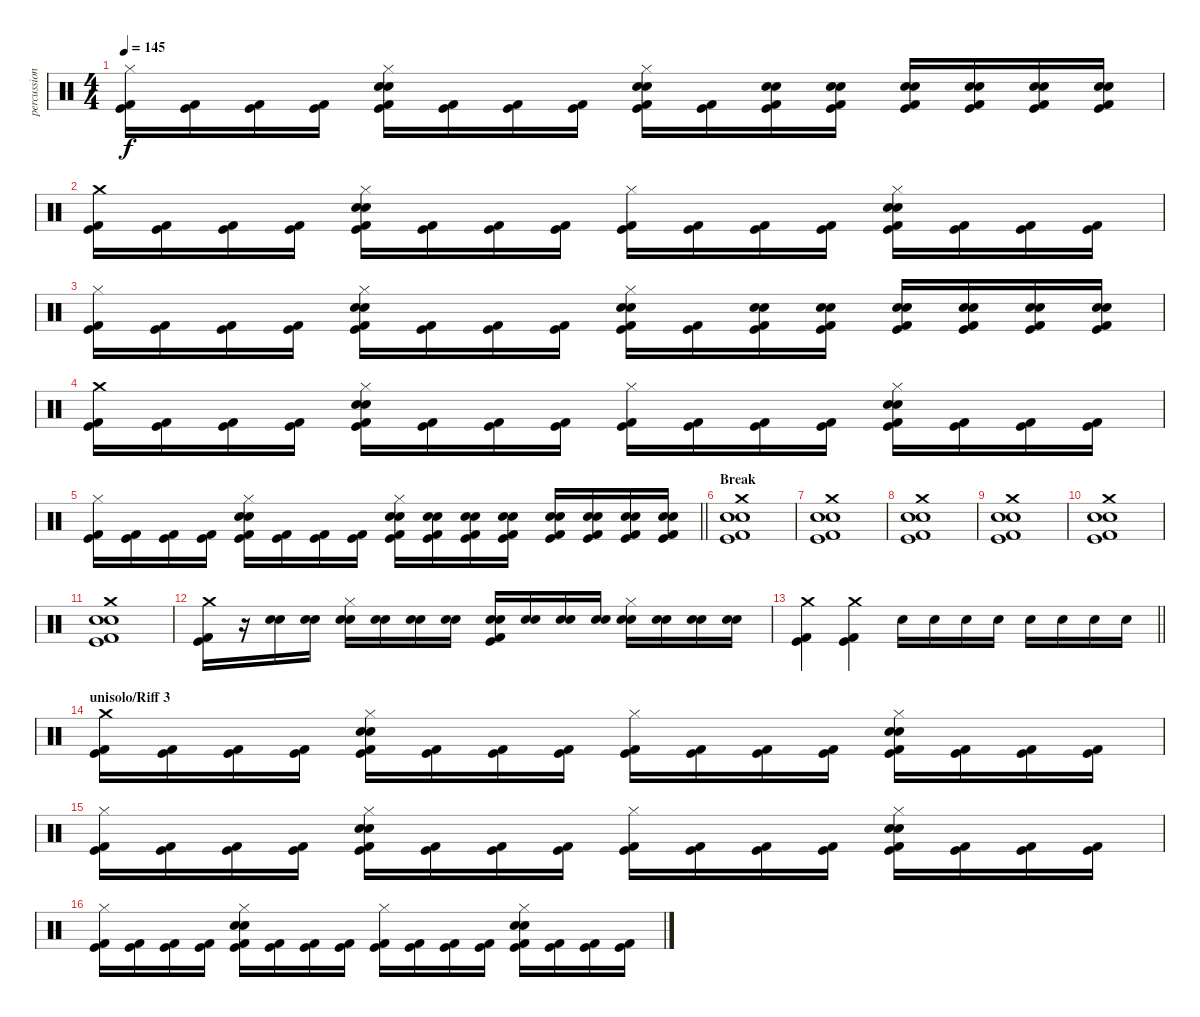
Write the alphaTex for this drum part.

\track ("percussion" "percussion") {instrument percussion}
\staff {score}
\articulation defaults
\ts (4 4)
\tempo 145
\clef neutral
\ks c
("Hi-Hat (closed)" "Kick (hit) 2" "Kick (hit)").16{dy f} ("Kick (hit) 2" "Kick (hit)").16 ("Kick (hit) 2" "Kick (hit)").16 ("Kick (hit) 2" "Kick (hit)").16 ("Hi-Hat (closed)" "Electric Snare (hit)" "Snare (hit) 2" "Kick (hit) 2" "Kick (hit)").16 ("Kick (hit) 2" "Kick (hit)").16 ("Kick (hit) 2" "Kick (hit)").16 ("Kick (hit) 2" "Kick (hit)").16 ("Hi-Hat (closed)" "Electric Snare (hit)" "Snare (hit) 2" "Kick (hit) 2" "Kick (hit)").16 ("Kick (hit) 2" "Kick (hit)").16 ("Electric Snare (hit)" "Snare (hit) 2" "Kick (hit) 2" "Kick (hit)").16 ("Electric Snare (hit)" "Snare (hit) 2" "Kick (hit) 2" "Kick (hit)").16 ("Electric Snare (hit)" "Snare (hit) 2" "Kick (hit) 2" "Kick (hit)").16 ("Electric Snare (hit)" "Snare (hit) 2" "Kick (hit) 2" "Kick (hit)").16 ("Electric Snare (hit)" "Snare (hit) 2" "Kick (hit) 2" "Kick (hit)").16 ("Electric Snare (hit)" "Snare (hit) 2" "Kick (hit) 2" "Kick (hit)").16 |
("Crash medium (hit)" "Kick (hit) 2" "Kick (hit)").16 ("Kick (hit) 2" "Kick (hit)").16 ("Kick (hit) 2" "Kick (hit)").16 ("Kick (hit) 2" "Kick (hit)").16 ("Hi-Hat (closed)" "Electric Snare (hit)" "Snare (hit) 2" "Kick (hit) 2" "Kick (hit)").16 ("Kick (hit) 2" "Kick (hit)").16 ("Kick (hit) 2" "Kick (hit)").16 ("Kick (hit) 2" "Kick (hit)").16 ("Hi-Hat (closed)" "Kick (hit) 2" "Kick (hit)").16 ("Kick (hit) 2" "Kick (hit)").16 ("Kick (hit) 2" "Kick (hit)").16 ("Kick (hit) 2" "Kick (hit)").16 ("Hi-Hat (closed)" "Electric Snare (hit)" "Snare (hit) 2" "Kick (hit) 2" "Kick (hit)").16 ("Kick (hit) 2" "Kick (hit)").16 ("Kick (hit) 2" "Kick (hit)").16 ("Kick (hit) 2" "Kick (hit)").16 |
("Hi-Hat (closed)" "Kick (hit) 2" "Kick (hit)").16 ("Kick (hit) 2" "Kick (hit)").16 ("Kick (hit) 2" "Kick (hit)").16 ("Kick (hit) 2" "Kick (hit)").16 ("Hi-Hat (closed)" "Electric Snare (hit)" "Snare (hit) 2" "Kick (hit) 2" "Kick (hit)").16 ("Kick (hit) 2" "Kick (hit)").16 ("Kick (hit) 2" "Kick (hit)").16 ("Kick (hit) 2" "Kick (hit)").16 ("Hi-Hat (closed)" "Electric Snare (hit)" "Snare (hit) 2" "Kick (hit) 2" "Kick (hit)").16 ("Kick (hit) 2" "Kick (hit)").16 ("Electric Snare (hit)" "Snare (hit) 2" "Kick (hit) 2" "Kick (hit)").16 ("Electric Snare (hit)" "Snare (hit) 2" "Kick (hit) 2" "Kick (hit)").16 ("Electric Snare (hit)" "Snare (hit) 2" "Kick (hit) 2" "Kick (hit)").16 ("Electric Snare (hit)" "Snare (hit) 2" "Kick (hit) 2" "Kick (hit)").16 ("Electric Snare (hit)" "Snare (hit) 2" "Kick (hit) 2" "Kick (hit)").16 ("Electric Snare (hit)" "Snare (hit) 2" "Kick (hit) 2" "Kick (hit)").16 |
("Crash medium (hit)" "Kick (hit) 2" "Kick (hit)").16 ("Kick (hit) 2" "Kick (hit)").16 ("Kick (hit) 2" "Kick (hit)").16 ("Kick (hit) 2" "Kick (hit)").16 ("Hi-Hat (closed)" "Electric Snare (hit)" "Snare (hit) 2" "Kick (hit) 2" "Kick (hit)").16 ("Kick (hit) 2" "Kick (hit)").16 ("Kick (hit) 2" "Kick (hit)").16 ("Kick (hit) 2" "Kick (hit)").16 ("Hi-Hat (closed)" "Kick (hit) 2" "Kick (hit)").16 ("Kick (hit) 2" "Kick (hit)").16 ("Kick (hit) 2" "Kick (hit)").16 ("Kick (hit) 2" "Kick (hit)").16 ("Hi-Hat (closed)" "Electric Snare (hit)" "Snare (hit) 2" "Kick (hit) 2" "Kick (hit)").16 ("Kick (hit) 2" "Kick (hit)").16 ("Kick (hit) 2" "Kick (hit)").16 ("Kick (hit) 2" "Kick (hit)").16 |
\barLineRight lightlight
("Hi-Hat (closed)" "Kick (hit) 2" "Kick (hit)").16 ("Kick (hit) 2" "Kick (hit)").16 ("Kick (hit) 2" "Kick (hit)").16 ("Kick (hit) 2" "Kick (hit)").16 ("Hi-Hat (closed)" "Electric Snare (hit)" "Snare (hit) 2" "Kick (hit) 2" "Kick (hit)").16 ("Kick (hit) 2" "Kick (hit)").16 ("Kick (hit) 2" "Kick (hit)").16 ("Kick (hit) 2" "Kick (hit)").16 ("Hi-Hat (closed)" "Electric Snare (hit)" "Snare (hit) 2" "Kick (hit) 2" "Kick (hit)").16 ("Electric Snare (hit)" "Snare (hit) 2" "Kick (hit) 2" "Kick (hit)").16 ("Electric Snare (hit)" "Snare (hit) 2" "Kick (hit) 2" "Kick (hit)").16 ("Electric Snare (hit)" "Snare (hit) 2" "Kick (hit) 2" "Kick (hit)").16 ("Electric Snare (hit)" "Snare (hit) 2" "Kick (hit) 2" "Kick (hit)").16 ("Electric Snare (hit)" "Snare (hit) 2" "Kick (hit) 2" "Kick (hit)").16 ("Electric Snare (hit)" "Snare (hit) 2" "Kick (hit) 2" "Kick (hit)").16 ("Electric Snare (hit)" "Snare (hit) 2" "Kick (hit) 2" "Kick (hit)").16 |
\section ("" "Break")
("Crash medium (hit)" "Electric Snare (hit)" "Snare (hit) 2" "Kick (hit)" "Kick (hit) 2").1 |
("Crash medium (hit)" "Electric Snare (hit)" "Snare (hit) 2" "Kick (hit)" "Kick (hit) 2").1 |
("Crash medium (hit)" "Electric Snare (hit)" "Snare (hit) 2" "Kick (hit)" "Kick (hit) 2").1 |
("Crash medium (hit)" "Electric Snare (hit)" "Snare (hit) 2" "Kick (hit)" "Kick (hit) 2").1 |
("Crash medium (hit)" "Electric Snare (hit)" "Snare (hit) 2" "Kick (hit)" "Kick (hit) 2").1 |
("Crash medium (hit)" "Electric Snare (hit)" "Snare (hit) 2" "Kick (hit)" "Kick (hit) 2").1 |
("Crash medium (hit)" "Kick (hit) 2" "Kick (hit)").16 r.16 ("Electric Snare (hit)" "Snare (hit) 2").16 ("Electric Snare (hit)" "Snare (hit) 2").16 ("Hi-Hat (closed)" "Electric Snare (hit)" "Snare (hit) 2").16 ("Electric Snare (hit)" "Snare (hit) 2").16 ("Electric Snare (hit)" "Snare (hit) 2").16 ("Electric Snare (hit)" "Snare (hit) 2").16 ("Electric Snare (hit)" "Snare (hit) 2" "Kick (hit) 2" "Kick (hit)").16 ("Electric Snare (hit)" "Snare (hit) 2").16 ("Electric Snare (hit)" "Snare (hit) 2").16 ("Electric Snare (hit)" "Snare (hit) 2").16 ("Hi-Hat (closed)" "Electric Snare (hit)" "Snare (hit) 2").16 ("Electric Snare (hit)" "Snare (hit) 2").16 ("Electric Snare (hit)" "Snare (hit) 2").16 ("Electric Snare (hit)" "Snare (hit) 2").16 |
\barLineRight lightlight
("Crash medium (hit)" "Kick (hit)" "Kick (hit) 2").4 ("Crash medium (hit)" "Kick (hit)" "Kick (hit) 2").4 "Electric Snare (hit)".16 "Electric Snare (hit)".16 "Snare (hit) 2".16 "Snare (hit) 2".16 "Electric Snare (hit)".16 "Electric Snare (hit)".16 "Snare (hit) 2".16 "Snare (hit) 2".16 |
\section ("" "unisolo/Riff 3")
("Crash medium (hit)" "Kick (hit) 2" "Kick (hit)").16 ("Kick (hit) 2" "Kick (hit)").16 ("Kick (hit) 2" "Kick (hit)").16 ("Kick (hit) 2" "Kick (hit)").16 ("Hi-Hat (closed)" "Electric Snare (hit)" "Snare (hit) 2" "Kick (hit) 2" "Kick (hit)").16 ("Kick (hit) 2" "Kick (hit)").16 ("Kick (hit) 2" "Kick (hit)").16 ("Kick (hit) 2" "Kick (hit)").16 ("Hi-Hat (closed)" "Kick (hit) 2" "Kick (hit)").16 ("Kick (hit) 2" "Kick (hit)").16 ("Kick (hit) 2" "Kick (hit)").16 ("Kick (hit) 2" "Kick (hit)").16 ("Hi-Hat (closed)" "Electric Snare (hit)" "Snare (hit) 2" "Kick (hit) 2" "Kick (hit)").16 ("Kick (hit) 2" "Kick (hit)").16 ("Kick (hit) 2" "Kick (hit)").16 ("Kick (hit) 2" "Kick (hit)").16 |
("Hi-Hat (closed)" "Kick (hit) 2" "Kick (hit)").16 ("Kick (hit) 2" "Kick (hit)").16 ("Kick (hit) 2" "Kick (hit)").16 ("Kick (hit) 2" "Kick (hit)").16 ("Hi-Hat (closed)" "Electric Snare (hit)" "Snare (hit) 2" "Kick (hit) 2" "Kick (hit)").16 ("Kick (hit) 2" "Kick (hit)").16 ("Kick (hit) 2" "Kick (hit)").16 ("Kick (hit) 2" "Kick (hit)").16 ("Hi-Hat (closed)" "Kick (hit) 2" "Kick (hit)").16 ("Kick (hit) 2" "Kick (hit)").16 ("Kick (hit) 2" "Kick (hit)").16 ("Kick (hit) 2" "Kick (hit)").16 ("Hi-Hat (closed)" "Electric Snare (hit)" "Snare (hit) 2" "Kick (hit) 2" "Kick (hit)").16 ("Kick (hit) 2" "Kick (hit)").16 ("Kick (hit) 2" "Kick (hit)").16 ("Kick (hit) 2" "Kick (hit)").16 |
("Hi-Hat (closed)" "Kick (hit) 2" "Kick (hit)").16 ("Kick (hit) 2" "Kick (hit)").16 ("Kick (hit) 2" "Kick (hit)").16 ("Kick (hit) 2" "Kick (hit)").16 ("Hi-Hat (closed)" "Electric Snare (hit)" "Snare (hit) 2" "Kick (hit) 2" "Kick (hit)").16 ("Kick (hit) 2" "Kick (hit)").16 ("Kick (hit) 2" "Kick (hit)").16 ("Kick (hit) 2" "Kick (hit)").16 ("Hi-Hat (closed)" "Kick (hit) 2" "Kick (hit)").16 ("Kick (hit) 2" "Kick (hit)").16 ("Kick (hit) 2" "Kick (hit)").16 ("Kick (hit) 2" "Kick (hit)").16 ("Hi-Hat (closed)" "Electric Snare (hit)" "Snare (hit) 2" "Kick (hit) 2" "Kick (hit)").16 ("Kick (hit) 2" "Kick (hit)").16 ("Kick (hit) 2" "Kick (hit)").16 ("Kick (hit) 2" "Kick (hit)").16
